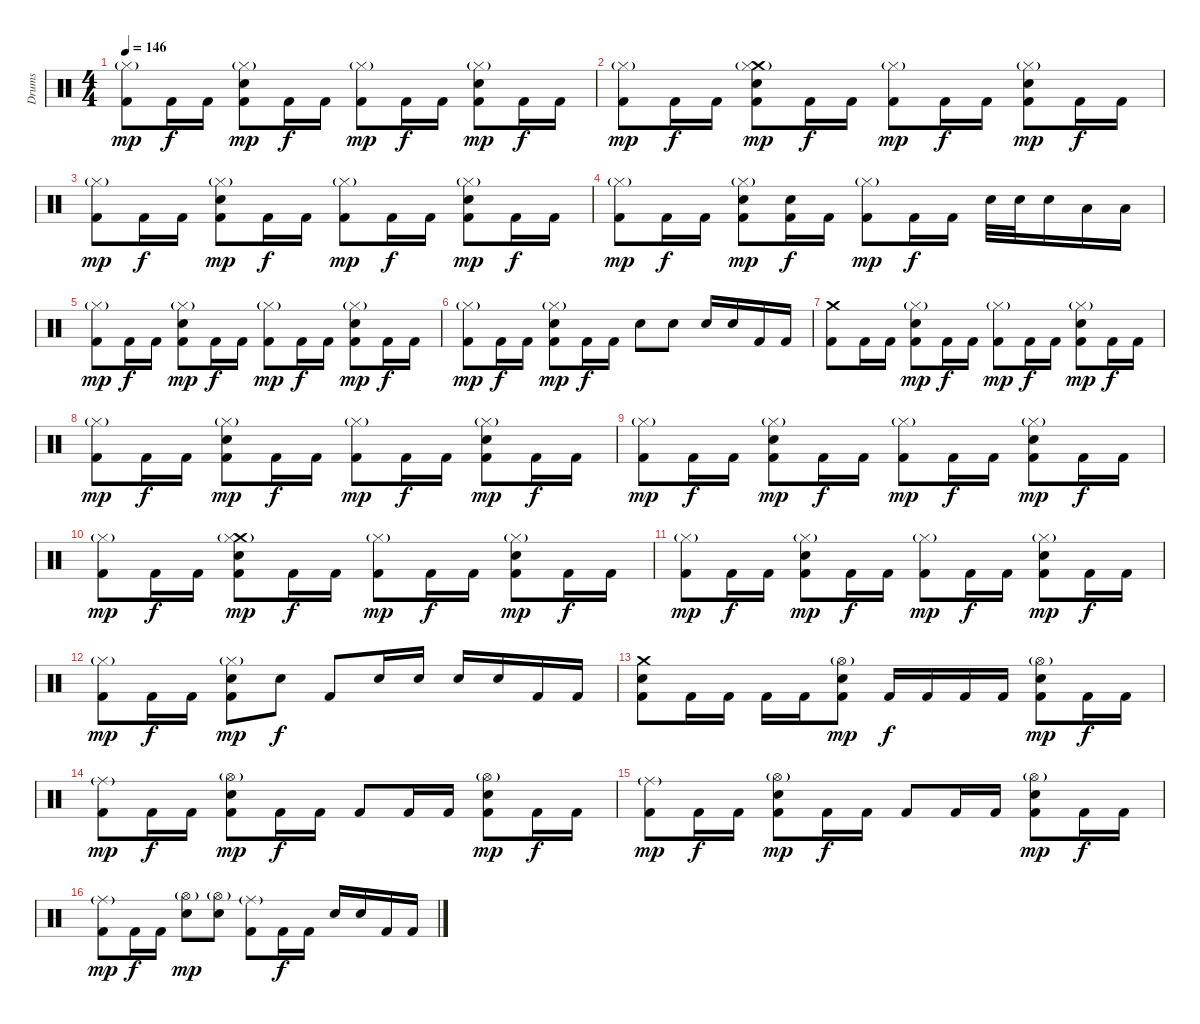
\track ("Drums" "Drums") {instrument percussion}
\staff {score}
\articulation defaults
\ts (4 4)
\tempo 146
\clef neutral
\ks c
("Hi-Hat (closed)"{g} "Kick (hit) 2").8{dy mp} "Kick (hit) 2".16{dy f} "Kick (hit) 2".16 ("Snare (hit) 2" "Hi-Hat (closed)"{g} "Kick (hit) 2").8{dy mp} "Kick (hit) 2".16{dy f} "Kick (hit) 2".16 ("Hi-Hat (closed)"{g} "Kick (hit) 2").8{dy mp} "Kick (hit) 2".16{dy f} "Kick (hit) 2".16 ("Snare (hit) 2" "Hi-Hat (closed)"{g} "Kick (hit) 2").8{dy mp} "Kick (hit) 2".16{dy f} "Kick (hit) 2".16 |
("Hi-Hat (closed)"{g} "Kick (hit) 2").8{dy mp} "Kick (hit) 2".16{dy f} "Kick (hit) 2".16 ("Crash medium (hit)" "Snare (hit) 2" "Hi-Hat (closed)"{g} "Kick (hit) 2").8{dy mp} "Kick (hit) 2".16{dy f} "Kick (hit) 2".16 ("Hi-Hat (closed)"{g} "Kick (hit) 2").8{dy mp} "Kick (hit) 2".16{dy f} "Kick (hit) 2".16 ("Snare (hit) 2" "Hi-Hat (closed)"{g} "Kick (hit) 2").8{dy mp} "Kick (hit) 2".16{dy f} "Kick (hit) 2".16 |
("Hi-Hat (closed)"{g} "Kick (hit) 2").8{dy mp} "Kick (hit) 2".16{dy f} "Kick (hit) 2".16 ("Snare (hit) 2" "Hi-Hat (closed)"{g} "Kick (hit) 2").8{dy mp} "Kick (hit) 2".16{dy f} "Kick (hit) 2".16 ("Hi-Hat (closed)"{g} "Kick (hit) 2").8{dy mp} "Kick (hit) 2".16{dy f} "Kick (hit) 2".16 ("Snare (hit) 2" "Hi-Hat (closed)"{g} "Kick (hit) 2").8{dy mp} "Kick (hit) 2".16{dy f} "Kick (hit) 2".16 |
("Hi-Hat (closed)"{g} "Kick (hit) 2").8{dy mp} "Kick (hit) 2".16{dy f} "Kick (hit) 2".16 ("Snare (hit) 2" "Hi-Hat (closed)"{g} "Kick (hit) 2").8{dy mp} ("Snare (hit) 2" "Kick (hit) 2").16{dy f} "Kick (hit) 2".16 ("Hi-Hat (closed)"{g} "Kick (hit) 2").8{dy mp} "Kick (hit) 2".16{dy f} "Kick (hit) 2".16 "Snare (hit) 2".32 "Snare (hit) 2".32 "Snare (hit) 2".16 "Low Tom (hit)".16 "Low Tom (hit)".16 |
("Hi-Hat (closed)"{g} "Kick (hit) 2").8{dy mp} "Kick (hit) 2".16{dy f} "Kick (hit) 2".16 ("Snare (hit) 2" "Hi-Hat (closed)"{g} "Kick (hit) 2").8{dy mp} "Kick (hit) 2".16{dy f} "Kick (hit) 2".16 ("Hi-Hat (closed)"{g} "Kick (hit) 2").8{dy mp} "Kick (hit) 2".16{dy f} "Kick (hit) 2".16 ("Snare (hit) 2" "Hi-Hat (closed)"{g} "Kick (hit) 2").8{dy mp} "Kick (hit) 2".16{dy f} "Kick (hit) 2".16 |
("Hi-Hat (closed)"{g} "Kick (hit) 2").8{dy mp} "Kick (hit) 2".16{dy f} "Kick (hit) 2".16 ("Snare (hit) 2" "Hi-Hat (closed)"{g} "Kick (hit) 2").8{dy mp} "Kick (hit) 2".16{dy f} "Kick (hit) 2".16 "Snare (hit) 2".8 "Snare (hit) 2".8 "Snare (hit) 2".16 "Snare (hit) 2".16 "Kick (hit) 2".16 "Kick (hit) 2".16 |
("Crash medium (hit)" "Kick (hit) 2").8 "Kick (hit) 2".16 "Kick (hit) 2".16 ("Snare (hit) 2" "Hi-Hat (closed)"{g} "Kick (hit) 2").8{dy mp} "Kick (hit) 2".16{dy f} "Kick (hit) 2".16 ("Hi-Hat (closed)"{g} "Kick (hit) 2").8{dy mp} "Kick (hit) 2".16{dy f} "Kick (hit) 2".16 ("Snare (hit) 2" "Hi-Hat (closed)"{g} "Kick (hit) 2").8{dy mp} "Kick (hit) 2".16{dy f} "Kick (hit) 2".16 |
("Hi-Hat (closed)"{g} "Kick (hit) 2").8{dy mp} "Kick (hit) 2".16{dy f} "Kick (hit) 2".16 ("Snare (hit) 2" "Hi-Hat (closed)"{g} "Kick (hit) 2").8{dy mp} "Kick (hit) 2".16{dy f} "Kick (hit) 2".16 ("Hi-Hat (closed)"{g} "Kick (hit) 2").8{dy mp} "Kick (hit) 2".16{dy f} "Kick (hit) 2".16 ("Snare (hit) 2" "Hi-Hat (closed)"{g} "Kick (hit) 2").8{dy mp} "Kick (hit) 2".16{dy f} "Kick (hit) 2".16 |
("Hi-Hat (closed)"{g} "Kick (hit) 2").8{dy mp} "Kick (hit) 2".16{dy f} "Kick (hit) 2".16 ("Snare (hit) 2" "Hi-Hat (closed)"{g} "Kick (hit) 2").8{dy mp} "Kick (hit) 2".16{dy f} "Kick (hit) 2".16 ("Hi-Hat (closed)"{g} "Kick (hit) 2").8{dy mp} "Kick (hit) 2".16{dy f} "Kick (hit) 2".16 ("Snare (hit) 2" "Hi-Hat (closed)"{g} "Kick (hit) 2").8{dy mp} "Kick (hit) 2".16{dy f} "Kick (hit) 2".16 |
("Hi-Hat (closed)"{g} "Kick (hit) 2").8{dy mp} "Kick (hit) 2".16{dy f} "Kick (hit) 2".16 ("Crash medium (hit)" "Snare (hit) 2" "Hi-Hat (closed)"{g} "Kick (hit) 2").8{dy mp} "Kick (hit) 2".16{dy f} "Kick (hit) 2".16 ("Hi-Hat (closed)"{g} "Kick (hit) 2").8{dy mp} "Kick (hit) 2".16{dy f} "Kick (hit) 2".16 ("Snare (hit) 2" "Hi-Hat (closed)"{g} "Kick (hit) 2").8{dy mp} "Kick (hit) 2".16{dy f} "Kick (hit) 2".16 |
("Hi-Hat (closed)"{g} "Kick (hit) 2").8{dy mp} "Kick (hit) 2".16{dy f} "Kick (hit) 2".16 ("Snare (hit) 2" "Hi-Hat (closed)"{g} "Kick (hit) 2").8{dy mp} "Kick (hit) 2".16{dy f} "Kick (hit) 2".16 ("Hi-Hat (closed)"{g} "Kick (hit) 2").8{dy mp} "Kick (hit) 2".16{dy f} "Kick (hit) 2".16 ("Snare (hit) 2" "Hi-Hat (closed)"{g} "Kick (hit) 2").8{dy mp} "Kick (hit) 2".16{dy f} "Kick (hit) 2".16 |
("Hi-Hat (closed)"{g} "Kick (hit) 2").8{dy mp} "Kick (hit) 2".16{dy f} "Kick (hit) 2".16 ("Snare (hit) 2" "Hi-Hat (closed)"{g} "Kick (hit) 2").8{dy mp} "Snare (hit) 2".8{dy f} "Kick (hit) 2".8 "Snare (hit) 2".16 "Snare (hit) 2".16 "Snare (hit) 2".16 "Snare (hit) 2".16 "Kick (hit) 2".16 "Kick (hit) 2".16 |
("Crash medium (hit)" "Snare (hit) 2" "Kick (hit) 2").8 "Kick (hit) 2".16 "Kick (hit) 2".16 "Kick (hit) 2".16 "Kick (hit) 2".16 ("Snare (hit) 2" "Hi-Hat (open)"{g} "Kick (hit) 2").8{dy mp} "Kick (hit) 2".16{dy f} "Kick (hit) 2".16 "Kick (hit) 2".16 "Kick (hit) 2".16 ("Snare (hit) 2" "Hi-Hat (open)"{g} "Kick (hit) 2").8{dy mp} "Kick (hit) 2".16{dy f} "Kick (hit) 2".16 |
("Ride (middle)"{g} "Kick (hit) 2").8{dy mp} "Kick (hit) 2".16{dy f} "Kick (hit) 2".16 ("Snare (hit) 2" "Hi-Hat (open)"{g} "Kick (hit) 2").8{dy mp} "Kick (hit) 2".16{dy f} "Kick (hit) 2".16 "Kick (hit) 2".8 "Kick (hit) 2".16 "Kick (hit) 2".16 ("Snare (hit) 2" "Hi-Hat (open)"{g} "Kick (hit) 2").8{dy mp} "Kick (hit) 2".16{dy f} "Kick (hit) 2".16 |
("Ride (middle)"{g} "Kick (hit) 2").8{dy mp} "Kick (hit) 2".16{dy f} "Kick (hit) 2".16 ("Snare (hit) 2" "Hi-Hat (open)"{g} "Kick (hit) 2").8{dy mp} "Kick (hit) 2".16{dy f} "Kick (hit) 2".16 "Kick (hit) 2".8 "Kick (hit) 2".16 "Kick (hit) 2".16 ("Snare (hit) 2" "Hi-Hat (open)"{g} "Kick (hit) 2").8{dy mp} "Kick (hit) 2".16{dy f} "Kick (hit) 2".16 |
("Ride (middle)"{g} "Kick (hit) 2").8{dy mp} "Kick (hit) 2".16{dy f} "Kick (hit) 2".16 ("Snare (hit) 2" "Hi-Hat (open)"{g}).8{dy mp} ("Snare (hit) 2" "Hi-Hat (open)"{g}).8 ("Ride (middle)"{g} "Kick (hit) 2").8 "Kick (hit) 2".16{dy f} "Kick (hit) 2".16 "Snare (hit) 2".16 "Snare (hit) 2".16 "Kick (hit) 2".16 "Kick (hit) 2".16
